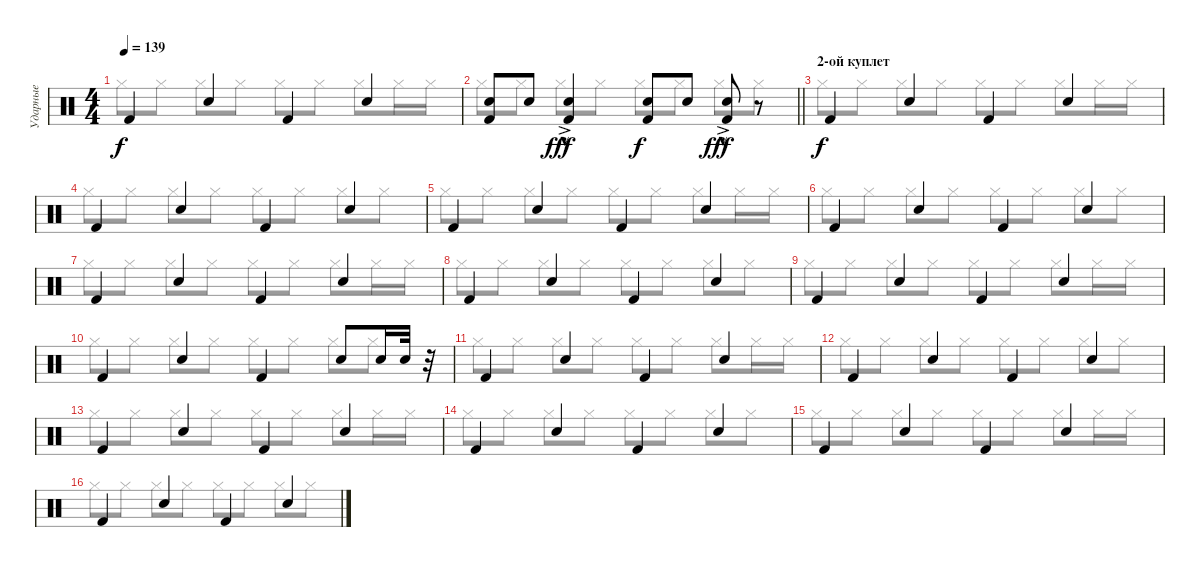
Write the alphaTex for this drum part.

\track ("Ударные" "Ударные") {instrument percussion}
\staff {score}
\articulation defaults
\voice
\ts (4 4)
\tempo 139
\clef neutral
\ks c "Kick (hit) 2".4{dy f} "Snare (hit) 2".4 "Kick (hit) 2".4 "Snare (hit) 2".4
|
\barLineRight lightlight
("Kick (hit) 2" "Snare (hit) 2").8 "Snare (hit) 2".8 ("Kick (hit) 2"{ac} "Snare (hit) 2"{hac}).4{dy fff} ("Kick (hit) 2" "Snare (hit) 2").8{dy f} "Snare (hit) 2".8 ("Kick (hit) 2"{ac} "Snare (hit) 2"{hac}).8{dy fff} r.8 |
\section ("" "2-ой куплет")
"Kick (hit) 2".4{dy f} "Snare (hit) 2".4 "Kick (hit) 2".4 "Snare (hit) 2".4 |
"Kick (hit) 2".4 "Snare (hit) 2".4 "Kick (hit) 2".4 "Snare (hit) 2".4 |
"Kick (hit) 2".4 "Snare (hit) 2".4 "Kick (hit) 2".4 "Snare (hit) 2".4 |
"Kick (hit) 2".4 "Snare (hit) 2".4 "Kick (hit) 2".4 "Snare (hit) 2".4 |
"Kick (hit) 2".4 "Snare (hit) 2".4 "Kick (hit) 2".4 "Snare (hit) 2".4 |
"Kick (hit) 2".4 "Snare (hit) 2".4 "Kick (hit) 2".4 "Snare (hit) 2".4 |
"Kick (hit) 2".4 "Snare (hit) 2".4 "Kick (hit) 2".4 "Snare (hit) 2".4 |
"Kick (hit) 2".4 "Snare (hit) 2".4 "Kick (hit) 2".4 "Snare (hit) 2".8 "Snare (hit) 2".16 "Snare (hit) 2".32 r.32 |
"Kick (hit) 2".4 "Snare (hit) 2".4 "Kick (hit) 2".4 "Snare (hit) 2".4 |
"Kick (hit) 2".4 "Snare (hit) 2".4 "Kick (hit) 2".4 "Snare (hit) 2".4 |
"Kick (hit) 2".4 "Snare (hit) 2".4 "Kick (hit) 2".4 "Snare (hit) 2".4 |
"Kick (hit) 2".4 "Snare (hit) 2".4 "Kick (hit) 2".4 "Snare (hit) 2".4 |
"Kick (hit) 2".4 "Snare (hit) 2".4 "Kick (hit) 2".4 "Snare (hit) 2".4 |
"Kick (hit) 2".4 "Snare (hit) 2".4 "Kick (hit) 2".4 "Snare (hit) 2".4
\voice
\clef neutral
\ottava regular
\simile none
\ks c "Hi-Hat (closed)".8{dy f} "Hi-Hat (closed)".8 "Hi-Hat (closed)".8 "Hi-Hat (closed)".8 "Hi-Hat (closed)".8 "Hi-Hat (closed)".8 "Hi-Hat (closed)".8 "Hi-Hat (closed)".16 "Hi-Hat (closed)".16
|
\barLineRight lightlight "Hi-Hat (closed)".8 "Hi-Hat (closed)".8 "Hi-Hat (closed)".8 "Hi-Hat (closed)".8 "Hi-Hat (closed)".8 "Hi-Hat (closed)".8 "Hi-Hat (closed)".8 "Hi-Hat (closed)".8
|
"Hi-Hat (closed)".8 "Hi-Hat (closed)".8 "Hi-Hat (closed)".8 "Hi-Hat (closed)".8 "Hi-Hat (closed)".8 "Hi-Hat (closed)".8 "Hi-Hat (closed)".8 "Hi-Hat (closed)".16 "Hi-Hat (closed)".16 |
"Hi-Hat (closed)".8 "Hi-Hat (closed)".8 "Hi-Hat (closed)".8 "Hi-Hat (closed)".8 "Hi-Hat (closed)".8 "Hi-Hat (closed)".8 "Hi-Hat (closed)".8 "Hi-Hat (closed)".8 |
"Hi-Hat (closed)".8 "Hi-Hat (closed)".8 "Hi-Hat (closed)".8 "Hi-Hat (closed)".8 "Hi-Hat (closed)".8 "Hi-Hat (closed)".8 "Hi-Hat (closed)".8 "Hi-Hat (closed)".16 "Hi-Hat (closed)".16 |
"Hi-Hat (closed)".8 "Hi-Hat (closed)".8 "Hi-Hat (closed)".8 "Hi-Hat (closed)".8 "Hi-Hat (closed)".8 "Hi-Hat (closed)".8 "Hi-Hat (closed)".8 "Hi-Hat (closed)".8 |
"Hi-Hat (closed)".8 "Hi-Hat (closed)".8 "Hi-Hat (closed)".8 "Hi-Hat (closed)".8 "Hi-Hat (closed)".8 "Hi-Hat (closed)".8 "Hi-Hat (closed)".8 "Hi-Hat (closed)".16 "Hi-Hat (closed)".16 |
"Hi-Hat (closed)".8 "Hi-Hat (closed)".8 "Hi-Hat (closed)".8 "Hi-Hat (closed)".8 "Hi-Hat (closed)".8 "Hi-Hat (closed)".8 "Hi-Hat (closed)".8 "Hi-Hat (closed)".8 |
"Hi-Hat (closed)".8 "Hi-Hat (closed)".8 "Hi-Hat (closed)".8 "Hi-Hat (closed)".8 "Hi-Hat (closed)".8 "Hi-Hat (closed)".8 "Hi-Hat (closed)".8 "Hi-Hat (closed)".16 "Hi-Hat (closed)".16 |
"Hi-Hat (closed)".8 "Hi-Hat (closed)".8 "Hi-Hat (closed)".8 "Hi-Hat (closed)".8 "Hi-Hat (closed)".8 "Hi-Hat (closed)".8 "Hi-Hat (closed)".8 "Hi-Hat (closed)".8 |
"Hi-Hat (closed)".8 "Hi-Hat (closed)".8 "Hi-Hat (closed)".8 "Hi-Hat (closed)".8 "Hi-Hat (closed)".8 "Hi-Hat (closed)".8 "Hi-Hat (closed)".8 "Hi-Hat (closed)".16 "Hi-Hat (closed)".16 |
"Hi-Hat (closed)".8 "Hi-Hat (closed)".8 "Hi-Hat (closed)".8 "Hi-Hat (closed)".8 "Hi-Hat (closed)".8 "Hi-Hat (closed)".8 "Hi-Hat (closed)".8 "Hi-Hat (closed)".8 |
"Hi-Hat (closed)".8 "Hi-Hat (closed)".8 "Hi-Hat (closed)".8 "Hi-Hat (closed)".8 "Hi-Hat (closed)".8 "Hi-Hat (closed)".8 "Hi-Hat (closed)".8 "Hi-Hat (closed)".16 "Hi-Hat (closed)".16 |
"Hi-Hat (closed)".8 "Hi-Hat (closed)".8 "Hi-Hat (closed)".8 "Hi-Hat (closed)".8 "Hi-Hat (closed)".8 "Hi-Hat (closed)".8 "Hi-Hat (closed)".8 "Hi-Hat (closed)".8 |
"Hi-Hat (closed)".8 "Hi-Hat (closed)".8 "Hi-Hat (closed)".8 "Hi-Hat (closed)".8 "Hi-Hat (closed)".8 "Hi-Hat (closed)".8 "Hi-Hat (closed)".8 "Hi-Hat (closed)".16 "Hi-Hat (closed)".16 |
"Hi-Hat (closed)".8 "Hi-Hat (closed)".8 "Hi-Hat (closed)".8 "Hi-Hat (closed)".8 "Hi-Hat (closed)".8 "Hi-Hat (closed)".8 "Hi-Hat (closed)".8 "Hi-Hat (closed)".8
